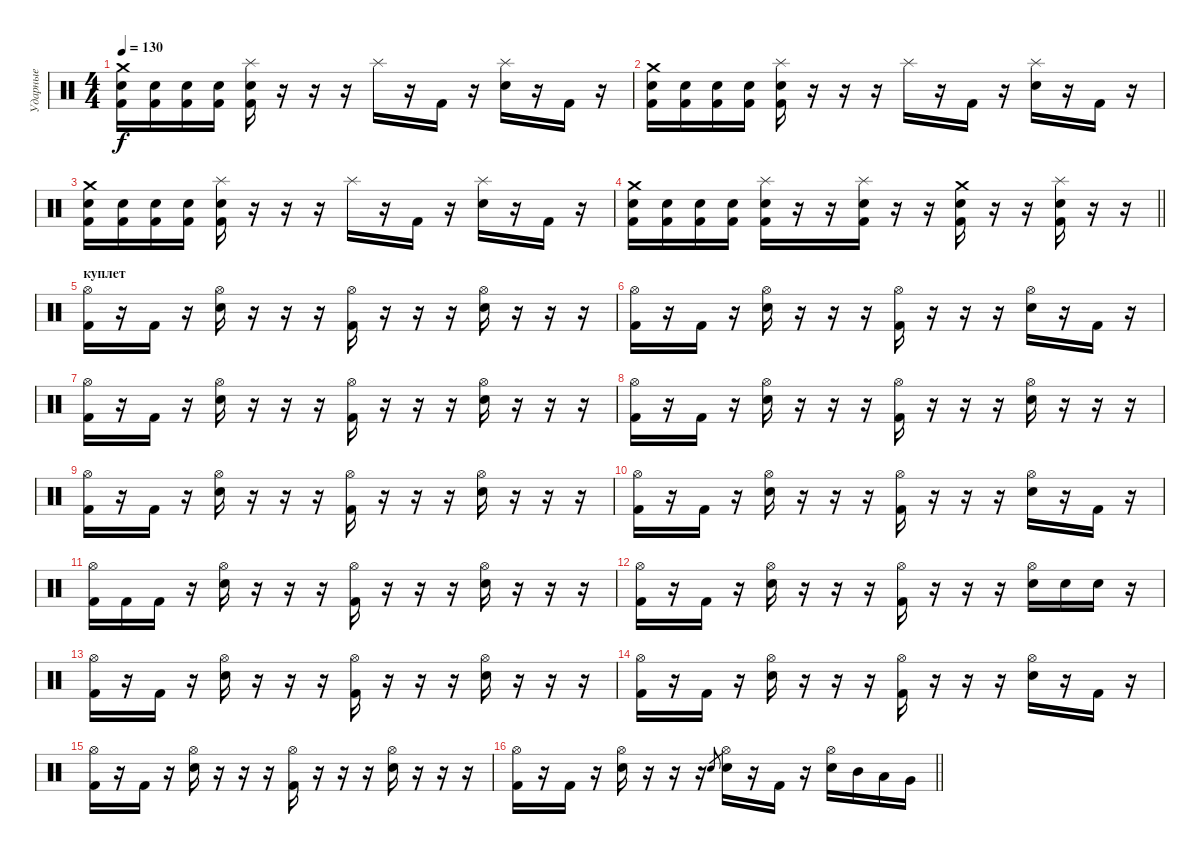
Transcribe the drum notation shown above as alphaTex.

\track ("Ударные" "Ударные") {instrument percussion}
\staff {score}
\articulation defaults
\ts (4 4)
\tempo 130
\clef neutral
\ks c
("Crash medium (hit)" "Electric Snare (hit)" "Kick (hit) 2").16{dy f} ("Electric Snare (hit)" "Kick (hit) 2").16 ("Electric Snare (hit)" "Kick (hit) 2").16 ("Electric Snare (hit)" "Kick (hit) 2").16 ("Splash (hit)" "Electric Snare (hit)" "Kick (hit) 2").16 r.16 r.16 r.16 "Splash (hit)".16 r.16 "Kick (hit) 2".16 r.16 ("Splash (hit)" "Electric Snare (hit)").16 r.16 "Kick (hit) 2".16 r.16 |
("Crash medium (hit)" "Electric Snare (hit)" "Kick (hit) 2").16 ("Electric Snare (hit)" "Kick (hit) 2").16 ("Electric Snare (hit)" "Kick (hit) 2").16 ("Electric Snare (hit)" "Kick (hit) 2").16 ("Splash (hit)" "Electric Snare (hit)" "Kick (hit) 2").16 r.16 r.16 r.16 "Splash (hit)".16 r.16 "Kick (hit) 2".16 r.16 ("Splash (hit)" "Electric Snare (hit)").16 r.16 "Kick (hit) 2".16 r.16 |
("Crash medium (hit)" "Electric Snare (hit)" "Kick (hit) 2").16 ("Electric Snare (hit)" "Kick (hit) 2").16 ("Electric Snare (hit)" "Kick (hit) 2").16 ("Electric Snare (hit)" "Kick (hit) 2").16 ("Splash (hit)" "Electric Snare (hit)" "Kick (hit) 2").16 r.16 r.16 r.16 "Splash (hit)".16 r.16 "Kick (hit) 2".16 r.16 ("Splash (hit)" "Electric Snare (hit)").16 r.16 "Kick (hit) 2".16 r.16 |
\barLineRight lightlight
("Crash medium (hit)" "Electric Snare (hit)" "Kick (hit) 2").16 ("Electric Snare (hit)" "Kick (hit) 2").16 ("Electric Snare (hit)" "Kick (hit) 2").16 ("Electric Snare (hit)" "Kick (hit) 2").16 ("Splash (hit)" "Electric Snare (hit)" "Kick (hit) 2").16 r.16 r.16 ("Splash (hit)" "Electric Snare (hit)" "Kick (hit) 2").16 r.16 r.16 ("Crash medium (hit)" "Electric Snare (hit)" "Kick (hit) 2").16 r.16 r.16 ("Splash (hit)" "Electric Snare (hit)" "Kick (hit) 2").16 r.16 r.16 |
\section ("" "куплет")
("Hi-Hat (open)" "Kick (hit) 2").16 r.16 "Kick (hit) 2".16 r.16 ("Hi-Hat (open)" "Electric Snare (hit)").16 r.16 r.16 r.16 ("Hi-Hat (open)" "Kick (hit) 2").16 r.16 r.16 r.16 ("Hi-Hat (open)" "Electric Snare (hit)").16 r.16 r.16 r.16 |
("Hi-Hat (open)" "Kick (hit) 2").16 r.16 "Kick (hit) 2".16 r.16 ("Hi-Hat (open)" "Electric Snare (hit)").16 r.16 r.16 r.16 ("Hi-Hat (open)" "Kick (hit) 2").16 r.16 r.16 r.16 ("Hi-Hat (open)" "Electric Snare (hit)").16 r.16 "Kick (hit) 2".16 r.16 |
("Hi-Hat (open)" "Kick (hit) 2").16 r.16 "Kick (hit) 2".16 r.16 ("Hi-Hat (open)" "Electric Snare (hit)").16 r.16 r.16 r.16 ("Hi-Hat (open)" "Kick (hit) 2").16 r.16 r.16 r.16 ("Hi-Hat (open)" "Electric Snare (hit)").16 r.16 r.16 r.16 |
("Hi-Hat (open)" "Kick (hit) 2").16 r.16 "Kick (hit) 2".16 r.16 ("Hi-Hat (open)" "Electric Snare (hit)").16 r.16 r.16 r.16 ("Hi-Hat (open)" "Kick (hit) 2").16 r.16 r.16 r.16 ("Hi-Hat (open)" "Electric Snare (hit)").16 r.16 r.16 r.16 |
("Hi-Hat (open)" "Kick (hit) 2").16 r.16 "Kick (hit) 2".16 r.16 ("Hi-Hat (open)" "Electric Snare (hit)").16 r.16 r.16 r.16 ("Hi-Hat (open)" "Kick (hit) 2").16 r.16 r.16 r.16 ("Hi-Hat (open)" "Electric Snare (hit)").16 r.16 r.16 r.16 |
("Hi-Hat (open)" "Kick (hit) 2").16 r.16 "Kick (hit) 2".16 r.16 ("Hi-Hat (open)" "Electric Snare (hit)").16 r.16 r.16 r.16 ("Hi-Hat (open)" "Kick (hit) 2").16 r.16 r.16 r.16 ("Hi-Hat (open)" "Electric Snare (hit)").16 r.16 "Kick (hit) 2".16 r.16 |
("Hi-Hat (open)" "Kick (hit) 2").16 "Kick (hit) 2".16 "Kick (hit) 2".16 r.16 ("Hi-Hat (open)" "Electric Snare (hit)").16 r.16 r.16 r.16 ("Hi-Hat (open)" "Kick (hit) 2").16 r.16 r.16 r.16 ("Hi-Hat (open)" "Electric Snare (hit)").16 r.16 r.16 r.16 |
("Hi-Hat (open)" "Kick (hit) 2").16 r.16 "Kick (hit) 2".16 r.16 ("Hi-Hat (open)" "Electric Snare (hit)").16 r.16 r.16 r.16 ("Hi-Hat (open)" "Kick (hit) 2").16 r.16 r.16 r.16 ("Hi-Hat (open)" "Electric Snare (hit)").16 "Electric Snare (hit)".16 "Electric Snare (hit)".16 r.16 |
("Hi-Hat (open)" "Kick (hit) 2").16 r.16 "Kick (hit) 2".16 r.16 ("Hi-Hat (open)" "Electric Snare (hit)").16 r.16 r.16 r.16 ("Hi-Hat (open)" "Kick (hit) 2").16 r.16 r.16 r.16 ("Hi-Hat (open)" "Electric Snare (hit)").16 r.16 r.16 r.16 |
("Hi-Hat (open)" "Kick (hit) 2").16 r.16 "Kick (hit) 2".16 r.16 ("Hi-Hat (open)" "Electric Snare (hit)").16 r.16 r.16 r.16 ("Hi-Hat (open)" "Kick (hit) 2").16 r.16 r.16 r.16 ("Hi-Hat (open)" "Electric Snare (hit)").16 r.16 "Kick (hit) 2".16 r.16 |
("Hi-Hat (open)" "Kick (hit) 2").16 r.16 "Kick (hit) 2".16 r.16 ("Hi-Hat (open)" "Electric Snare (hit)").16 r.16 r.16 r.16 ("Hi-Hat (open)" "Kick (hit) 2").16 r.16 r.16 r.16 ("Hi-Hat (open)" "Electric Snare (hit)").16 r.16 r.16 r.16 |
\barLineRight lightlight
("Hi-Hat (open)" "Kick (hit) 2").16 r.16 "Kick (hit) 2".16 r.16 ("Hi-Hat (open)" "Electric Snare (hit)").16 r.16 r.16 r.16 "Electric Snare (hit)".8{gr} ("Hi-Hat (open)" "Electric Snare (hit)").16 r.16 "Kick (hit) 2".16 r.16 ("Hi-Hat (open)" "Electric Snare (hit)").16 "Mid Tom (hit)".16 "Low Tom (hit)".16 "Very Low Tom (hit)".16
